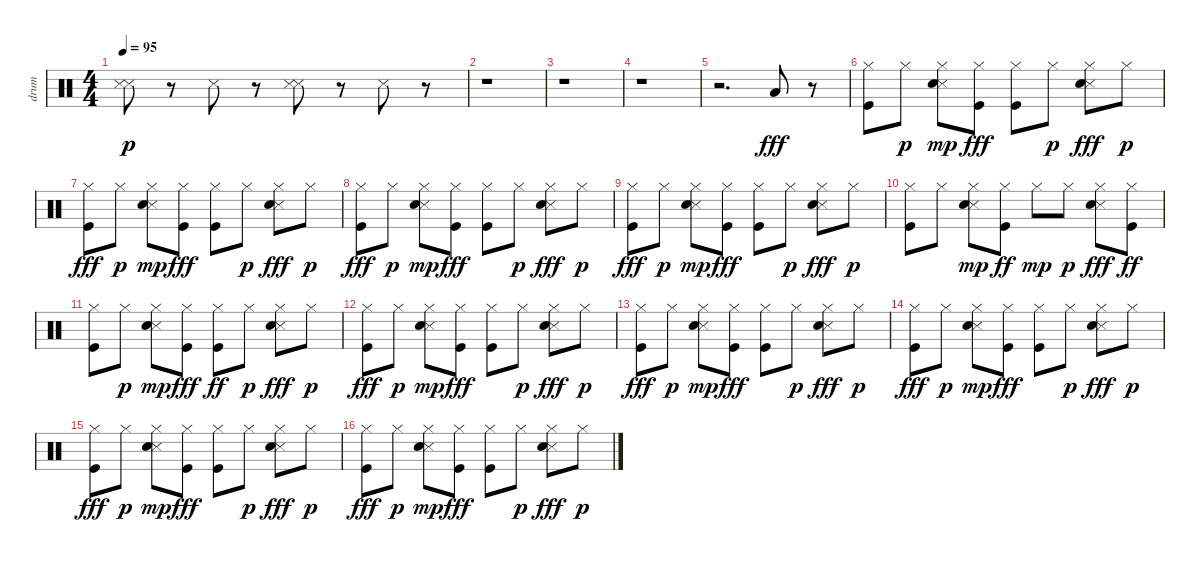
\track ("drum" "drum") {instrument percussion}
\staff {score}
\articulation defaults
\ts (4 4)
\tempo 95
\clef neutral
\ks c
("Snare (side stick) 3" "Snare (side stick) 3").8{dy p} r.8 "Snare (side stick) 3".8{balance 8} r.8 ("Snare (side stick) 3" "Snare (side stick) 3").8{volume 11} r.8 "Snare (side stick) 3".8 r.8 |
r.1 |
r.1 |
r.1 |
r.2{d} "Low Floor Tom (hit)".8{dy fff} r.8 |
("Hi-Hat (closed)" "Kick (hit)").8 "Hi-Hat (closed)".8{dy p} ("Hi-Hat (closed)" "Snare (side stick) 3" "Snare (hit) 2").8{dy mp} ("Hi-Hat (closed)" "Kick (hit)").8{dy fff} ("Hi-Hat (closed)" "Kick (hit)").8 "Hi-Hat (closed)".8{dy p} ("Hi-Hat (closed)" "Snare (side stick) 3" "Snare (hit) 2").8{dy fff} "Hi-Hat (closed)".8{dy p} |
("Hi-Hat (closed)" "Kick (hit)").8{dy fff} "Hi-Hat (closed)".8{dy p} ("Hi-Hat (closed)" "Snare (side stick) 3" "Snare (hit) 2").8{dy mp} ("Hi-Hat (closed)" "Kick (hit)").8{dy fff} ("Hi-Hat (closed)" "Kick (hit)").8 "Hi-Hat (closed)".8{dy p} ("Hi-Hat (closed)" "Snare (side stick) 3" "Snare (hit) 2").8{dy fff} "Hi-Hat (closed)".8{dy p} |
("Hi-Hat (closed)" "Kick (hit)").8{dy fff} "Hi-Hat (closed)".8{dy p} ("Hi-Hat (closed)" "Snare (side stick) 3" "Snare (hit) 2").8{dy mp} ("Hi-Hat (closed)" "Kick (hit)").8{dy fff} ("Hi-Hat (closed)" "Kick (hit)").8 "Hi-Hat (closed)".8{dy p} ("Hi-Hat (closed)" "Snare (side stick) 3" "Snare (hit) 2").8{dy fff} "Hi-Hat (closed)".8{dy p} |
("Hi-Hat (closed)" "Kick (hit)").8{dy fff} "Hi-Hat (closed)".8{dy p} ("Hi-Hat (closed)" "Snare (side stick) 3" "Snare (hit) 2").8{dy mp} ("Hi-Hat (closed)" "Kick (hit)").8{dy fff} ("Hi-Hat (closed)" "Kick (hit)").8 "Hi-Hat (closed)".8{dy p} ("Hi-Hat (closed)" "Snare (side stick) 3" "Snare (hit) 2").8{dy fff} "Hi-Hat (closed)".8{dy p} |
("Hi-Hat (closed)" "Kick (hit)").8 "Hi-Hat (closed)".8 ("Hi-Hat (closed)" "Snare (side stick) 3" "Snare (hit) 2").8{dy mp} ("Hi-Hat (closed)" "Kick (hit)").8{dy ff} "Hi-Hat (closed)".8{dy mp} "Hi-Hat (closed)".8{dy p} ("Hi-Hat (closed)" "Snare (side stick) 3" "Snare (hit) 2").8{dy fff} ("Hi-Hat (closed)" "Kick (hit)").8{dy ff} |
("Hi-Hat (closed)" "Kick (hit)").8 "Hi-Hat (closed)".8{dy p} ("Hi-Hat (closed)" "Snare (side stick) 3" "Snare (hit) 2").8{dy mp} ("Hi-Hat (closed)" "Kick (hit)").8{dy fff} ("Hi-Hat (closed)" "Kick (hit)").8{dy ff} "Hi-Hat (closed)".8{dy p} ("Hi-Hat (closed)" "Snare (side stick) 3" "Snare (hit) 2").8{dy fff} "Hi-Hat (closed)".8{dy p} |
("Hi-Hat (closed)" "Kick (hit)").8{dy fff} "Hi-Hat (closed)".8{dy p} ("Hi-Hat (closed)" "Snare (side stick) 3" "Snare (hit) 2").8{dy mp} ("Hi-Hat (closed)" "Kick (hit)").8{dy fff} ("Hi-Hat (closed)" "Kick (hit)").8 "Hi-Hat (closed)".8{dy p} ("Hi-Hat (closed)" "Snare (side stick) 3" "Snare (hit) 2").8{dy fff} "Hi-Hat (closed)".8{dy p} |
("Hi-Hat (closed)" "Kick (hit)").8{dy fff} "Hi-Hat (closed)".8{dy p} ("Hi-Hat (closed)" "Snare (side stick) 3" "Snare (hit) 2").8{dy mp} ("Hi-Hat (closed)" "Kick (hit)").8{dy fff} ("Hi-Hat (closed)" "Kick (hit)").8 "Hi-Hat (closed)".8{dy p} ("Hi-Hat (closed)" "Snare (side stick) 3" "Snare (hit) 2").8{dy fff} "Hi-Hat (closed)".8{dy p} |
("Hi-Hat (closed)" "Kick (hit)").8{dy fff} "Hi-Hat (closed)".8{dy p} ("Hi-Hat (closed)" "Snare (side stick) 3" "Snare (hit) 2").8{dy mp} ("Hi-Hat (closed)" "Kick (hit)").8{dy fff} ("Hi-Hat (closed)" "Kick (hit)").8 "Hi-Hat (closed)".8{dy p} ("Hi-Hat (closed)" "Snare (side stick) 3" "Snare (hit) 2").8{dy fff} "Hi-Hat (closed)".8{dy p} |
("Hi-Hat (closed)" "Kick (hit)").8{dy fff} "Hi-Hat (closed)".8{dy p} ("Hi-Hat (closed)" "Snare (side stick) 3" "Snare (hit) 2").8{dy mp} ("Hi-Hat (closed)" "Kick (hit)").8{dy fff} ("Hi-Hat (closed)" "Kick (hit)").8 "Hi-Hat (closed)".8{dy p} ("Hi-Hat (closed)" "Snare (side stick) 3" "Snare (hit) 2").8{dy fff} "Hi-Hat (closed)".8{dy p} |
("Hi-Hat (closed)" "Kick (hit)").8{dy fff} "Hi-Hat (closed)".8{dy p} ("Hi-Hat (closed)" "Snare (side stick) 3" "Snare (hit) 2").8{dy mp} ("Hi-Hat (closed)" "Kick (hit)").8{dy fff} ("Hi-Hat (closed)" "Kick (hit)").8 "Hi-Hat (closed)".8{dy p} ("Hi-Hat (closed)" "Snare (side stick) 3" "Snare (hit) 2").8{dy fff} "Hi-Hat (closed)".8{dy p}
